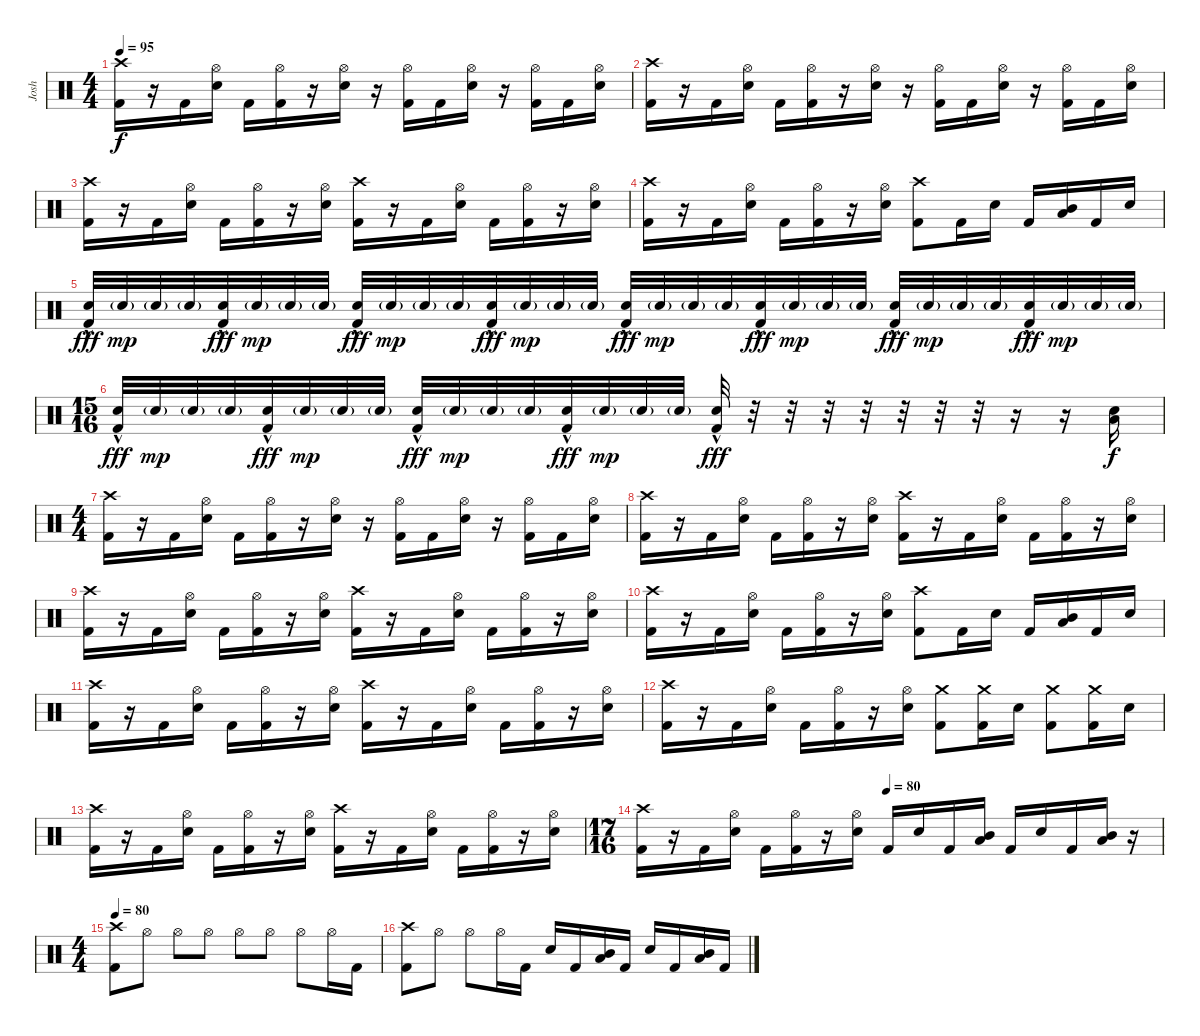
\track ("Josh" "Josh") {instrument percussion}
\staff {score}
\articulation defaults
\ts (4 4)
\tempo 95
\clef neutral
\ks c
("Crash high (hit)" "Kick (hit) 2").16{dy f} r.16 "Kick (hit) 2".16 ("Hi-Hat (open)" "Snare (hit) 2").16 "Kick (hit) 2".16 ("Hi-Hat (open)" "Kick (hit) 2").16 r.16 ("Hi-Hat (open)" "Snare (hit) 2").16 r.16 ("Hi-Hat (open)" "Kick (hit) 2").16 "Kick (hit) 2".16 ("Hi-Hat (open)" "Snare (hit) 2").16 r.16 ("Hi-Hat (open)" "Kick (hit) 2").16 "Kick (hit) 2".16 ("Hi-Hat (open)" "Snare (hit) 2").16 |
("Crash high (hit)" "Kick (hit) 2").16 r.16 "Kick (hit) 2".16 ("Hi-Hat (open)" "Snare (hit) 2").16 "Kick (hit) 2".16 ("Hi-Hat (open)" "Kick (hit) 2").16 r.16 ("Hi-Hat (open)" "Snare (hit) 2").16 r.16 ("Hi-Hat (open)" "Kick (hit) 2").16 "Kick (hit) 2".16 ("Hi-Hat (open)" "Snare (hit) 2").16 r.16 ("Hi-Hat (open)" "Kick (hit) 2").16 "Kick (hit) 2".16 ("Hi-Hat (open)" "Snare (hit) 2").16 |
("Crash high (hit)" "Kick (hit) 2").16 r.16 "Kick (hit) 2".16 ("Hi-Hat (open)" "Snare (hit) 2").16 "Kick (hit) 2".16 ("Hi-Hat (open)" "Kick (hit) 2").16 r.16 ("Hi-Hat (open)" "Snare (hit) 2").16 ("Crash high (hit)" "Kick (hit) 2").16 r.16 "Kick (hit) 2".16 ("Hi-Hat (open)" "Snare (hit) 2").16 "Kick (hit) 2".16 ("Hi-Hat (open)" "Kick (hit) 2").16 r.16 ("Hi-Hat (open)" "Snare (hit) 2").16 |
("Crash high (hit)" "Kick (hit) 2").16 r.16 "Kick (hit) 2".16 ("Hi-Hat (open)" "Snare (hit) 2").16 "Kick (hit) 2".16 ("Hi-Hat (open)" "Kick (hit) 2").16 r.16 ("Hi-Hat (open)" "Snare (hit) 2").16 ("Crash high (hit)" "Kick (hit) 2").8 "Kick (hit) 2".16 "Snare (hit) 2".16 "Kick (hit) 2".16 ("Mid Tom (hit)" "Low Tom (hit)").16 "Kick (hit) 2".16 "Snare (hit) 2".16 |
("Snare (hit) 2"{hac} "Kick (hit) 2").32{dy fff} "Snare (hit) 2"{g}.32{dy mp} "Snare (hit) 2"{g}.32 "Snare (hit) 2"{g}.32 ("Snare (hit) 2"{hac} "Kick (hit) 2").32{dy fff} "Snare (hit) 2"{g}.32{dy mp} "Snare (hit) 2"{g}.32 "Snare (hit) 2"{g}.32 ("Snare (hit) 2"{hac} "Kick (hit) 2").32{dy fff} "Snare (hit) 2"{g}.32{dy mp} "Snare (hit) 2"{g}.32 "Snare (hit) 2"{g}.32 ("Snare (hit) 2"{hac} "Kick (hit) 2").32{dy fff} "Snare (hit) 2"{g}.32{dy mp} "Snare (hit) 2"{g}.32 "Snare (hit) 2"{g}.32 ("Snare (hit) 2"{hac} "Kick (hit) 2").32{dy fff} "Snare (hit) 2"{g}.32{dy mp} "Snare (hit) 2"{g}.32 "Snare (hit) 2"{g}.32 ("Snare (hit) 2"{hac} "Kick (hit) 2").32{dy fff} "Snare (hit) 2"{g}.32{dy mp} "Snare (hit) 2"{g}.32 "Snare (hit) 2"{g}.32 ("Snare (hit) 2"{hac} "Kick (hit) 2").32{dy fff} "Snare (hit) 2"{g}.32{dy mp} "Snare (hit) 2"{g}.32 "Snare (hit) 2"{g}.32 ("Snare (hit) 2"{hac} "Kick (hit) 2").32{dy fff} "Snare (hit) 2"{g}.32{dy mp} "Snare (hit) 2"{g}.32 "Snare (hit) 2"{g}.32 |
\ts (15 16)
("Snare (hit) 2"{hac} "Kick (hit) 2").32{dy fff} "Snare (hit) 2"{g}.32{dy mp} "Snare (hit) 2"{g}.32 "Snare (hit) 2"{g}.32 ("Snare (hit) 2"{hac} "Kick (hit) 2").32{dy fff} "Snare (hit) 2"{g}.32{dy mp} "Snare (hit) 2"{g}.32 "Snare (hit) 2"{g}.32 ("Snare (hit) 2"{hac} "Kick (hit) 2").32{dy fff} "Snare (hit) 2"{g}.32{dy mp} "Snare (hit) 2"{g}.32 "Snare (hit) 2"{g}.32 ("Snare (hit) 2"{hac} "Kick (hit) 2").32{dy fff} "Snare (hit) 2"{g}.32{dy mp} "Snare (hit) 2"{g}.32 "Snare (hit) 2"{g}.32 ("Snare (hit) 2"{hac} "Kick (hit) 2").32{dy fff} r.32 r.32 r.32 r.32 r.32 r.32 r.32 r.16 r.16 ("Snare (hit) 2" "Low Tom (hit)").16{dy f} |
\ts (4 4)
("Crash high (hit)" "Kick (hit) 2").16 r.16 "Kick (hit) 2".16 ("Hi-Hat (open)" "Snare (hit) 2").16 "Kick (hit) 2".16 ("Hi-Hat (open)" "Kick (hit) 2").16 r.16 ("Hi-Hat (open)" "Snare (hit) 2").16 r.16 ("Hi-Hat (open)" "Kick (hit) 2").16 "Kick (hit) 2".16 ("Hi-Hat (open)" "Snare (hit) 2").16 r.16 ("Hi-Hat (open)" "Kick (hit) 2").16 "Kick (hit) 2".16 ("Hi-Hat (open)" "Snare (hit) 2").16 |
("Crash high (hit)" "Kick (hit) 2").16 r.16 "Kick (hit) 2".16 ("Hi-Hat (open)" "Snare (hit) 2").16 "Kick (hit) 2".16 ("Hi-Hat (open)" "Kick (hit) 2").16 r.16 ("Hi-Hat (open)" "Snare (hit) 2").16 ("Crash high (hit)" "Kick (hit) 2").16 r.16 "Kick (hit) 2".16 ("Hi-Hat (open)" "Snare (hit) 2").16 "Kick (hit) 2".16 ("Hi-Hat (open)" "Kick (hit) 2").16 r.16 ("Hi-Hat (open)" "Snare (hit) 2").16 |
("Crash high (hit)" "Kick (hit) 2").16 r.16 "Kick (hit) 2".16 ("Hi-Hat (open)" "Snare (hit) 2").16 "Kick (hit) 2".16 ("Hi-Hat (open)" "Kick (hit) 2").16 r.16 ("Hi-Hat (open)" "Snare (hit) 2").16 ("Crash high (hit)" "Kick (hit) 2").16 r.16 "Kick (hit) 2".16 ("Hi-Hat (open)" "Snare (hit) 2").16 "Kick (hit) 2".16 ("Hi-Hat (open)" "Kick (hit) 2").16 r.16 ("Hi-Hat (open)" "Snare (hit) 2").16 |
("Crash high (hit)" "Kick (hit) 2").16 r.16 "Kick (hit) 2".16 ("Hi-Hat (open)" "Snare (hit) 2").16 "Kick (hit) 2".16 ("Hi-Hat (open)" "Kick (hit) 2").16 r.16 ("Hi-Hat (open)" "Snare (hit) 2").16 ("Crash high (hit)" "Kick (hit) 2").8 "Kick (hit) 2".16 "Snare (hit) 2".16 "Kick (hit) 2".16 ("Mid Tom (hit)" "Low Tom (hit)").16 "Kick (hit) 2".16 "Snare (hit) 2".16 |
("Crash high (hit)" "Kick (hit) 2").16 r.16 "Kick (hit) 2".16 ("Hi-Hat (open)" "Snare (hit) 2").16 "Kick (hit) 2".16 ("Hi-Hat (open)" "Kick (hit) 2").16 r.16 ("Hi-Hat (open)" "Snare (hit) 2").16 ("Crash high (hit)" "Kick (hit) 2").16 r.16 "Kick (hit) 2".16 ("Hi-Hat (open)" "Snare (hit) 2").16 "Kick (hit) 2".16 ("Hi-Hat (open)" "Kick (hit) 2").16 r.16 ("Hi-Hat (open)" "Snare (hit) 2").16 |
("Crash high (hit)" "Kick (hit) 2").16 r.16 "Kick (hit) 2".16 ("Hi-Hat (open)" "Snare (hit) 2").16 "Kick (hit) 2".16 ("Hi-Hat (open)" "Kick (hit) 2").16 r.16 ("Hi-Hat (open)" "Snare (hit) 2").16 ("Crash medium (hit)" "Kick (hit) 2").8 ("Crash medium (hit)" "Kick (hit) 2").16 "Snare (hit) 2".16 ("Crash medium (hit)" "Kick (hit) 2").8 ("Crash medium (hit)" "Kick (hit) 2").16 "Snare (hit) 2".16 |
("Crash high (hit)" "Kick (hit) 2").16 r.16 "Kick (hit) 2".16 ("Hi-Hat (open)" "Snare (hit) 2").16 "Kick (hit) 2".16 ("Hi-Hat (open)" "Kick (hit) 2").16 r.16 ("Hi-Hat (open)" "Snare (hit) 2").16 ("Crash high (hit)" "Kick (hit) 2").16 r.16 "Kick (hit) 2".16 ("Hi-Hat (open)" "Snare (hit) 2").16 "Kick (hit) 2".16 ("Hi-Hat (open)" "Kick (hit) 2").16 r.16 ("Hi-Hat (open)" "Snare (hit) 2").16 |
\ts (17 16)
\tempo (80 0.47058823529411764)
("Crash high (hit)" "Kick (hit) 2").16 r.16 "Kick (hit) 2".16 ("Hi-Hat (open)" "Snare (hit) 2").16 "Kick (hit) 2".16 ("Hi-Hat (open)" "Kick (hit) 2").16 r.16 ("Hi-Hat (open)" "Snare (hit) 2").16 "Kick (hit) 2".16 "Snare (hit) 2".16 "Kick (hit) 2".16 ("Mid Tom (hit)" "Low Tom (hit)").16 "Kick (hit) 2".16 "Snare (hit) 2".16 "Kick (hit) 2".16 ("Low Tom (hit)" "Mid Tom (hit)").16 r.16 |
\ts (4 4)
\tempo 80
("Crash high (hit)" "Kick (hit) 2").8 "Hi-Hat (open)".8 "Hi-Hat (open)".8 "Hi-Hat (open)".8 "Hi-Hat (open)".8 "Hi-Hat (open)".8 "Hi-Hat (open)".8 "Hi-Hat (open)".16 "Kick (hit) 2".16 |
("Crash high (hit)" "Kick (hit) 2").8 "Hi-Hat (open)".8 "Hi-Hat (open)".8 "Hi-Hat (open)".16 "Kick (hit) 2".16 "Snare (hit) 2".16 "Kick (hit) 2".16 ("Mid Tom (hit)" "Low Tom (hit)").16 "Kick (hit) 2".16 "Snare (hit) 2".16 "Kick (hit) 2".16 ("Mid Tom (hit)" "Low Tom (hit)").16 "Kick (hit) 2".16
